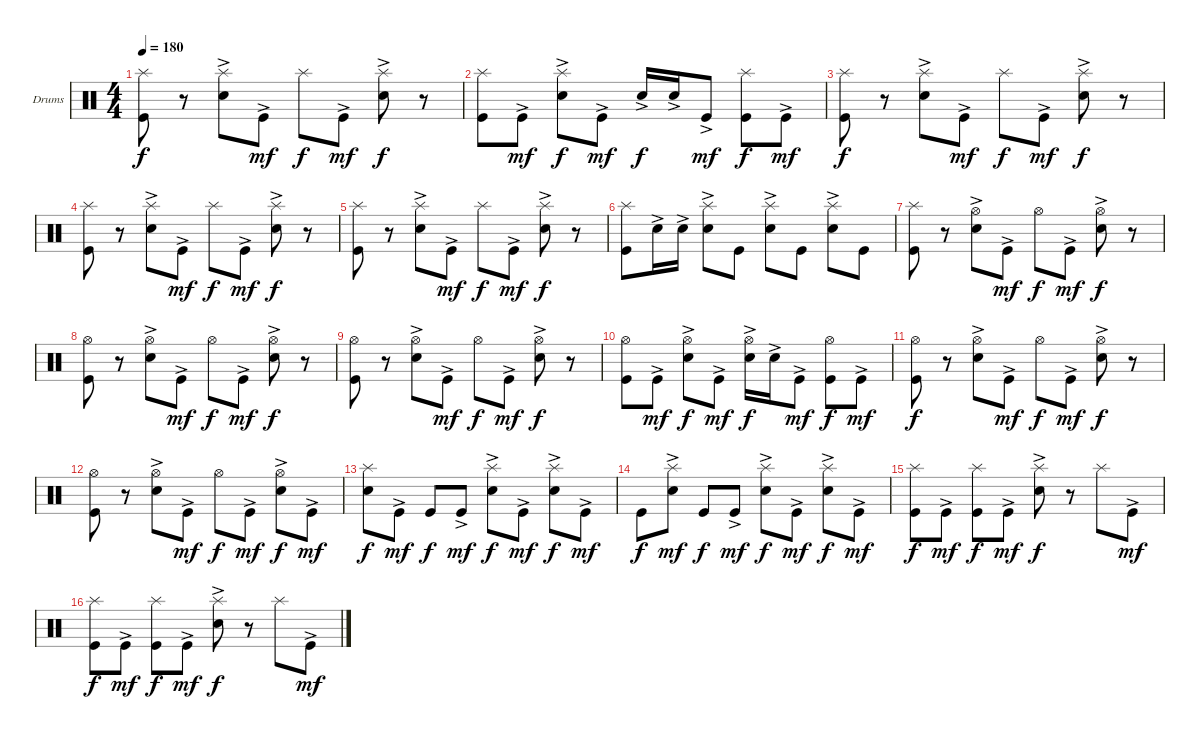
\defaultSystemsLayout 4
\bracketExtendMode groupsimilarinstruments
\firstSystemTrackNameOrientation horizontal
\otherSystemsTrackNameOrientation horizontal
\track ("Drumkit" "Drums") {instrument percussion}
\staff {score}
\articulation defaults
\ts (4 4)
\tempo 180
\clef neutral
\ks c
("Kick (hit)" "Splash (hit)").8{dy f} r.8 ("Snare (hit) 2"{ac} "Splash (hit)").8 "Kick (hit)"{ac}.8{dy mf} "Splash (hit)".8{dy f} "Kick (hit)"{ac}.8{dy mf} ("Snare (hit) 2"{ac} "Splash (hit)").8{dy f} r.8 |
("Kick (hit)" "Splash (hit)").8 "Kick (hit)"{ac}.8{dy mf} ("Snare (hit) 2"{ac} "Splash (hit)").8{dy f} "Kick (hit)"{ac}.8{dy mf} "Snare (hit) 2"{ac}.16{dy f} "Snare (hit) 2"{ac}.16 "Kick (hit)"{ac}.8{dy mf} ("Kick (hit)" "Splash (hit)").8{dy f} "Kick (hit)"{ac}.8{dy mf} |
("Kick (hit)" "Splash (hit)").8{dy f} r.8 ("Snare (hit) 2"{ac} "Splash (hit)").8 "Kick (hit)"{ac}.8{dy mf} "Splash (hit)".8{dy f} "Kick (hit)"{ac}.8{dy mf} ("Snare (hit) 2"{ac} "Splash (hit)").8{dy f} r.8 |
("Kick (hit)" "Splash (hit)").8 r.8 ("Snare (hit) 2"{ac} "Splash (hit)").8 "Kick (hit)"{ac}.8{dy mf} "Splash (hit)".8{dy f} "Kick (hit)"{ac}.8{dy mf} ("Snare (hit) 2"{ac} "Splash (hit)").8{dy f} r.8 |
("Kick (hit)" "Splash (hit)").8 r.8 ("Snare (hit) 2"{ac} "Splash (hit)").8 "Kick (hit)"{ac}.8{dy mf} "Splash (hit)".8{dy f} "Kick (hit)"{ac}.8{dy mf} ("Snare (hit) 2"{ac} "Splash (hit)").8{dy f} r.8 |
("Kick (hit)" "Splash (hit)").8 "Snare (hit) 2"{ac}.16 "Snare (hit) 2"{ac}.16 ("Snare (hit) 2"{ac} "Splash (hit)").8 "Kick (hit)".8 ("Snare (hit) 2"{ac} "Splash (hit)").8 "Kick (hit)".8 ("Snare (hit) 2"{ac} "Splash (hit)").8 "Kick (hit)".8 |
("Kick (hit)" "Splash (hit)").8 r.8 ("Snare (hit) 2"{ac} "Hi-Hat (open)").8 "Kick (hit)"{ac}.8{dy mf} "Hi-Hat (open)".8{dy f} "Kick (hit)"{ac}.8{dy mf} ("Snare (hit) 2"{ac} "Hi-Hat (open)").8{dy f} r.8 |
("Kick (hit)" "Hi-Hat (open)").8 r.8 ("Snare (hit) 2"{ac} "Hi-Hat (open)").8 "Kick (hit)"{ac}.8{dy mf} "Hi-Hat (open)".8{dy f} "Kick (hit)"{ac}.8{dy mf} ("Snare (hit) 2"{ac} "Hi-Hat (open)").8{dy f} r.8 |
("Kick (hit)" "Hi-Hat (open)").8 r.8 ("Snare (hit) 2"{ac} "Hi-Hat (open)").8 "Kick (hit)"{ac}.8{dy mf} "Hi-Hat (open)".8{dy f} "Kick (hit)"{ac}.8{dy mf} ("Snare (hit) 2"{ac} "Hi-Hat (open)").8{dy f} r.8 |
("Kick (hit)" "Hi-Hat (open)").8 "Kick (hit)"{ac}.8{dy mf} ("Snare (hit) 2"{ac} "Hi-Hat (open)").8{dy f} "Kick (hit)"{ac}.8{dy mf} ("Snare (hit) 2"{ac} "Hi-Hat (open)").16{dy f} "Snare (hit) 2"{ac}.16 "Kick (hit)"{ac}.8{dy mf} ("Kick (hit)" "Hi-Hat (open)").8{dy f} "Kick (hit)"{ac}.8{dy mf} |
("Kick (hit)" "Hi-Hat (open)").8{dy f} r.8 ("Snare (hit) 2"{ac} "Hi-Hat (open)").8 "Kick (hit)"{ac}.8{dy mf} "Hi-Hat (open)".8{dy f} "Kick (hit)"{ac}.8{dy mf} ("Snare (hit) 2"{ac} "Hi-Hat (open)").8{dy f} r.8 |
("Kick (hit)" "Hi-Hat (open)").8 r.8 ("Snare (hit) 2"{ac} "Hi-Hat (open)").8 "Kick (hit)"{ac}.8{dy mf} "Hi-Hat (open)".8{dy f} "Kick (hit)"{ac}.8{dy mf} ("Snare (hit) 2"{ac} "Hi-Hat (open)").8{dy f} "Kick (hit)"{ac}.8{dy mf} |
("Snare (hit) 2" "Splash (hit)").8{dy f} "Kick (hit)"{ac}.8{dy mf} "Kick (hit)".8{dy f} "Kick (hit)"{ac}.8{dy mf} ("Snare (hit) 2"{ac} "Splash (hit)").8{dy f} "Kick (hit)"{ac}.8{dy mf} ("Snare (hit) 2"{ac} "Splash (hit)").8{dy f} "Kick (hit)"{ac}.8{dy mf} |
"Kick (hit)".8{dy f} ("Snare (hit) 2"{ac} "Splash (hit)").8{dy mf} "Kick (hit)".8{dy f} "Kick (hit)"{ac}.8{dy mf} ("Snare (hit) 2"{ac} "Splash (hit)").8{dy f} "Kick (hit)"{ac}.8{dy mf} ("Snare (hit) 2"{ac} "Splash (hit)").8{dy f} "Kick (hit)"{ac}.8{dy mf} |
("Kick (hit)" "Splash (hit)").8{dy f} "Kick (hit)"{ac}.8{dy mf} ("Kick (hit)" "Splash (hit)").8{dy f} "Kick (hit)"{ac}.8{dy mf} ("Snare (hit) 2"{ac} "Splash (hit)").8{dy f} r.8 "Splash (hit)".8 "Kick (hit)"{ac}.8{dy mf} |
("Kick (hit)" "Splash (hit)").8{dy f} "Kick (hit)"{ac}.8{dy mf} ("Kick (hit)" "Splash (hit)").8{dy f} "Kick (hit)"{ac}.8{dy mf} ("Snare (hit) 2"{ac} "Splash (hit)").8{dy f} r.8 "Splash (hit)".8 "Kick (hit)"{ac}.8{dy mf}
